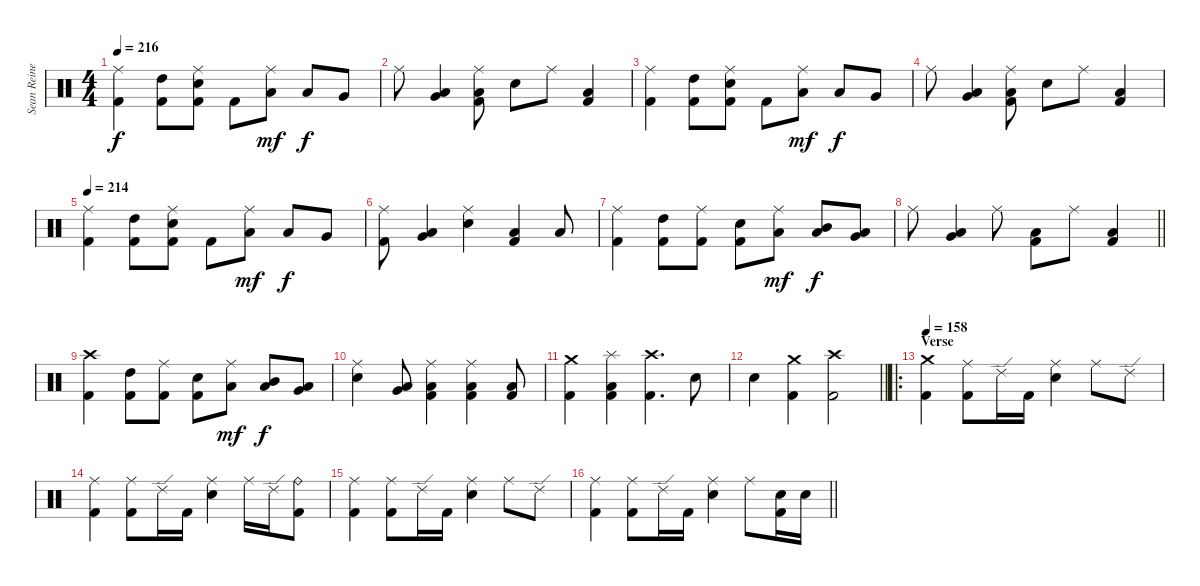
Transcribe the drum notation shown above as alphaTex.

\track ("Sean Reinert" "Sean Reine") {instrument percussion}
\staff {score}
\articulation defaults
\ts (4 4)
\tempo 216
\clef neutral
\ks c
("Ride (middle)" "Kick (hit) 2").4{dy f} ("High Tom (hit)" "Kick (hit) 2").8 ("Ride (middle)" "Snare (hit) 2" "Kick (hit) 2").8 "Kick (hit) 2".8 ("Ride (middle)" "Low Tom (hit)").8{dy mf} "Low Tom (hit)".8{dy f} "Very Low Tom (hit)".8 |
"Ride (middle)".8 ("Low Floor Tom (hit)" "Very Low Tom (hit)").4 ("Ride (middle)" "Low Floor Tom (hit)" "Kick (hit) 2").8 "Snare (hit) 2".8 "Ride (middle)".8 ("Low Floor Tom (hit)" "Kick (hit) 2").4 |
("Ride (middle)" "Kick (hit) 2").4 ("High Tom (hit)" "Kick (hit) 2").8 ("Ride (middle)" "Snare (hit) 2" "Kick (hit) 2").8 "Kick (hit) 2".8 ("Ride (middle)" "Low Tom (hit)").8{dy mf} "Low Tom (hit)".8{dy f} "Very Low Tom (hit)".8 |
"Ride (middle)".8 ("Low Floor Tom (hit)" "Very Low Tom (hit)").4 ("Ride (middle)" "Low Floor Tom (hit)" "Kick (hit) 2").8 "Snare (hit) 2".8 "Ride (middle)".8 ("Low Floor Tom (hit)" "Kick (hit) 2").4 |
\tempo 214
("Ride (middle)" "Kick (hit) 2").4 ("High Tom (hit)" "Kick (hit) 2").8 ("Ride (middle)" "Snare (hit) 2" "Kick (hit) 2").8 "Kick (hit) 2".8 ("Ride (middle)" "Low Tom (hit)").8{dy mf} "Low Tom (hit)".8{dy f} "Very Low Tom (hit)".8 |
("Ride (middle)" "Kick (hit) 2").8 ("Low Floor Tom (hit)" "Very Low Tom (hit)").4 ("Ride (middle)" "Snare (hit) 2").4 ("Low Floor Tom (hit)" "Kick (hit) 2").4 "Low Floor Tom (hit)".8 |
("Ride (middle)" "Kick (hit) 2").4 ("High Tom (hit)" "Kick (hit) 2").8 ("Ride (middle)" "Kick (hit) 2").8 ("Snare (hit) 2" "Kick (hit) 2").8 ("Ride (middle)" "Low Tom (hit)").8{dy mf} ("Mid Tom (hit)" "Low Tom (hit)").8{dy f} ("Low Tom (hit)" "Very Low Tom (hit)").8 |
\barLineRight lightlight "Ride (middle)".8
("Low Floor Tom (hit)" "Very Low Tom (hit)").4 "Ride (middle)".8 ("Low Floor Tom (hit)" "Kick (hit) 2").8 "Ride (middle)".8 ("Low Floor Tom (hit)" "Kick (hit) 2").4 |
("Crash high (hit)" "Kick (hit) 2").4 ("High Tom (hit)" "Kick (hit) 2").8 ("Ride (middle)" "Kick (hit) 2").8 ("Snare (hit) 2" "Kick (hit) 2").8 ("Ride (middle)" "Low Tom (hit)").8{dy mf} ("Mid Tom (hit)" "Low Tom (hit)").8{dy f} ("Low Tom (hit)" "Very Low Tom (hit)").8 |
("Ride (middle)" "Snare (hit) 2").4 ("Low Floor Tom (hit)" "Very Low Tom (hit)").8 ("Ride (middle)" "Low Floor Tom (hit)" "Kick (hit) 2").4 ("Ride (middle)" "Low Floor Tom (hit)" "Kick (hit) 2").4 ("Low Floor Tom (hit)" "Kick (hit) 2").8 |
("Crash medium (hit)" "Kick (hit) 2").4 ("Splash (hit)" "Low Tom (hit)" "Kick (hit) 2").4 ("Crash high (hit)" "Kick (hit) 2").4{d} "Snare (hit) 2".8 |
\barLineRight lightlight "Snare (hit) 2".4
("Crash medium (hit)" "Kick (hit) 2").4 ("Crash high (hit)" "Kick (hit) 2").2 |
\ro
\section ("" "Verse")
\tempo 158
("Crash medium (hit)" "Kick (hit) 2").4 ("Ride (middle)" "Kick (hit) 2").8 "Ride (edge) 2".16 "Kick (hit) 2".16 ("Ride (middle)" "Snare (hit) 2").4 "Ride (middle)".8 "Ride (edge) 2".8 |
("Ride (middle)" "Kick (hit) 2").4 ("Ride (middle)" "Kick (hit) 2").8 "Ride (edge) 2".16 "Kick (hit) 2".16 ("Ride (middle)" "Snare (hit) 2").4 "Ride (middle)".16 "Ride (edge) 2".16 ("Ride (bell)" "Kick (hit) 2").8 |
("Ride (middle)" "Kick (hit) 2").4 ("Ride (middle)" "Kick (hit) 2").8 "Ride (edge) 2".16 "Kick (hit) 2".16 ("Ride (middle)" "Snare (hit) 2").4 "Ride (middle)".8 "Ride (edge) 2".8 |
\barLineRight lightlight
("Ride (middle)" "Kick (hit) 2").4 ("Ride (middle)" "Kick (hit) 2").8 "Ride (edge) 2".16 "Kick (hit) 2".16 ("Ride (middle)" "Snare (hit) 2").4 "Ride (middle)".8 ("Snare (hit) 2" "Kick (hit) 2").16 "Snare (hit) 2".16
